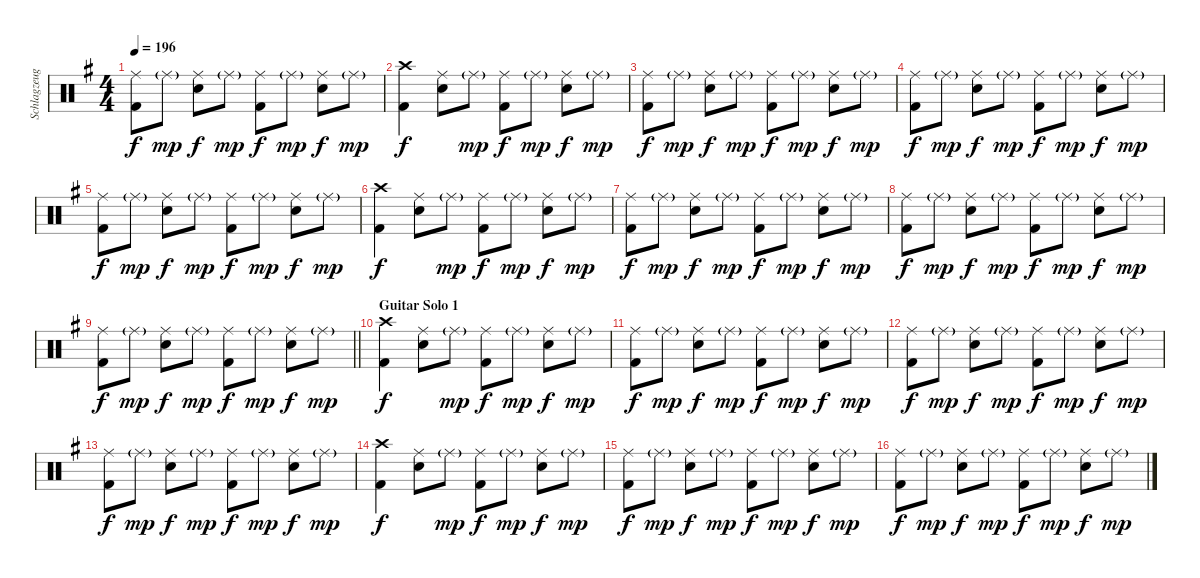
\track ("Schlagzeug" "Schlagzeug") {instrument percussion}
\staff {score}
\articulation defaults
\ts (4 4)
\tempo 196
\clef neutral
\ks g
("Ride (middle)" "Kick (hit) 2").8{dy f} "Ride (middle)"{g}.8{dy mp} ("Ride (middle)" "Snare (hit) 2").8{dy f} "Ride (middle)"{g}.8{dy mp} ("Ride (middle)" "Kick (hit) 2").8{dy f} "Ride (middle)"{g}.8{dy mp} ("Ride (middle)" "Snare (hit) 2").8{dy f} "Ride (middle)"{g}.8{dy mp} |
("Crash high (hit)" "Kick (hit) 2").4{dy f} ("Ride (middle)" "Snare (hit) 2").8 "Ride (middle)"{g}.8{dy mp} ("Ride (middle)" "Kick (hit) 2").8{dy f} "Ride (middle)"{g}.8{dy mp} ("Ride (middle)" "Snare (hit) 2").8{dy f} "Ride (middle)"{g}.8{dy mp} |
("Ride (middle)" "Kick (hit) 2").8{dy f} "Ride (middle)"{g}.8{dy mp} ("Ride (middle)" "Snare (hit) 2").8{dy f} "Ride (middle)"{g}.8{dy mp} ("Ride (middle)" "Kick (hit) 2").8{dy f} "Ride (middle)"{g}.8{dy mp} ("Ride (middle)" "Snare (hit) 2").8{dy f} "Ride (middle)"{g}.8{dy mp} |
("Ride (middle)" "Kick (hit) 2").8{dy f} "Ride (middle)"{g}.8{dy mp} ("Ride (middle)" "Snare (hit) 2").8{dy f} "Ride (middle)"{g}.8{dy mp} ("Ride (middle)" "Kick (hit) 2").8{dy f} "Ride (middle)"{g}.8{dy mp} ("Ride (middle)" "Snare (hit) 2").8{dy f} "Ride (middle)"{g}.8{dy mp} |
("Ride (middle)" "Kick (hit) 2").8{dy f} "Ride (middle)"{g}.8{dy mp} ("Ride (middle)" "Snare (hit) 2").8{dy f} "Ride (middle)"{g}.8{dy mp} ("Ride (middle)" "Kick (hit) 2").8{dy f} "Ride (middle)"{g}.8{dy mp} ("Ride (middle)" "Snare (hit) 2").8{dy f} "Ride (middle)"{g}.8{dy mp} |
("Crash high (hit)" "Kick (hit) 2").4{dy f} ("Ride (middle)" "Snare (hit) 2").8 "Ride (middle)"{g}.8{dy mp} ("Ride (middle)" "Kick (hit) 2").8{dy f} "Ride (middle)"{g}.8{dy mp} ("Ride (middle)" "Snare (hit) 2").8{dy f} "Ride (middle)"{g}.8{dy mp} |
("Ride (middle)" "Kick (hit) 2").8{dy f} "Ride (middle)"{g}.8{dy mp} ("Ride (middle)" "Snare (hit) 2").8{dy f} "Ride (middle)"{g}.8{dy mp} ("Ride (middle)" "Kick (hit) 2").8{dy f} "Ride (middle)"{g}.8{dy mp} ("Ride (middle)" "Snare (hit) 2").8{dy f} "Ride (middle)"{g}.8{dy mp} |
("Ride (middle)" "Kick (hit) 2").8{dy f} "Ride (middle)"{g}.8{dy mp} ("Ride (middle)" "Snare (hit) 2").8{dy f} "Ride (middle)"{g}.8{dy mp} ("Ride (middle)" "Kick (hit) 2").8{dy f} "Ride (middle)"{g}.8{dy mp} ("Ride (middle)" "Snare (hit) 2").8{dy f} "Ride (middle)"{g}.8{dy mp} |
\barLineRight lightlight
("Ride (middle)" "Kick (hit) 2").8{dy f} "Ride (middle)"{g}.8{dy mp} ("Ride (middle)" "Snare (hit) 2").8{dy f} "Ride (middle)"{g}.8{dy mp} ("Ride (middle)" "Kick (hit) 2").8{dy f} "Ride (middle)"{g}.8{dy mp} ("Ride (middle)" "Snare (hit) 2").8{dy f} "Ride (middle)"{g}.8{dy mp} |
\section ("" "Guitar Solo 1")
("Crash high (hit)" "Kick (hit) 2").4{dy f} ("Ride (middle)" "Snare (hit) 2").8 "Ride (middle)"{g}.8{dy mp} ("Ride (middle)" "Kick (hit) 2").8{dy f} "Ride (middle)"{g}.8{dy mp} ("Ride (middle)" "Snare (hit) 2").8{dy f} "Ride (middle)"{g}.8{dy mp} |
("Ride (middle)" "Kick (hit) 2").8{dy f} "Ride (middle)"{g}.8{dy mp} ("Ride (middle)" "Snare (hit) 2").8{dy f} "Ride (middle)"{g}.8{dy mp} ("Ride (middle)" "Kick (hit) 2").8{dy f} "Ride (middle)"{g}.8{dy mp} ("Ride (middle)" "Snare (hit) 2").8{dy f} "Ride (middle)"{g}.8{dy mp} |
("Ride (middle)" "Kick (hit) 2").8{dy f} "Ride (middle)"{g}.8{dy mp} ("Ride (middle)" "Snare (hit) 2").8{dy f} "Ride (middle)"{g}.8{dy mp} ("Ride (middle)" "Kick (hit) 2").8{dy f} "Ride (middle)"{g}.8{dy mp} ("Ride (middle)" "Snare (hit) 2").8{dy f} "Ride (middle)"{g}.8{dy mp} |
("Ride (middle)" "Kick (hit) 2").8{dy f} "Ride (middle)"{g}.8{dy mp} ("Ride (middle)" "Snare (hit) 2").8{dy f} "Ride (middle)"{g}.8{dy mp} ("Ride (middle)" "Kick (hit) 2").8{dy f} "Ride (middle)"{g}.8{dy mp} ("Ride (middle)" "Snare (hit) 2").8{dy f} "Ride (middle)"{g}.8{dy mp} |
("Crash high (hit)" "Kick (hit) 2").4{dy f} ("Ride (middle)" "Snare (hit) 2").8 "Ride (middle)"{g}.8{dy mp} ("Ride (middle)" "Kick (hit) 2").8{dy f} "Ride (middle)"{g}.8{dy mp} ("Ride (middle)" "Snare (hit) 2").8{dy f} "Ride (middle)"{g}.8{dy mp} |
("Ride (middle)" "Kick (hit) 2").8{dy f} "Ride (middle)"{g}.8{dy mp} ("Ride (middle)" "Snare (hit) 2").8{dy f} "Ride (middle)"{g}.8{dy mp} ("Ride (middle)" "Kick (hit) 2").8{dy f} "Ride (middle)"{g}.8{dy mp} ("Ride (middle)" "Snare (hit) 2").8{dy f} "Ride (middle)"{g}.8{dy mp} |
("Ride (middle)" "Kick (hit) 2").8{dy f} "Ride (middle)"{g}.8{dy mp} ("Ride (middle)" "Snare (hit) 2").8{dy f} "Ride (middle)"{g}.8{dy mp} ("Ride (middle)" "Kick (hit) 2").8{dy f} "Ride (middle)"{g}.8{dy mp} ("Ride (middle)" "Snare (hit) 2").8{dy f} "Ride (middle)"{g}.8{dy mp}
